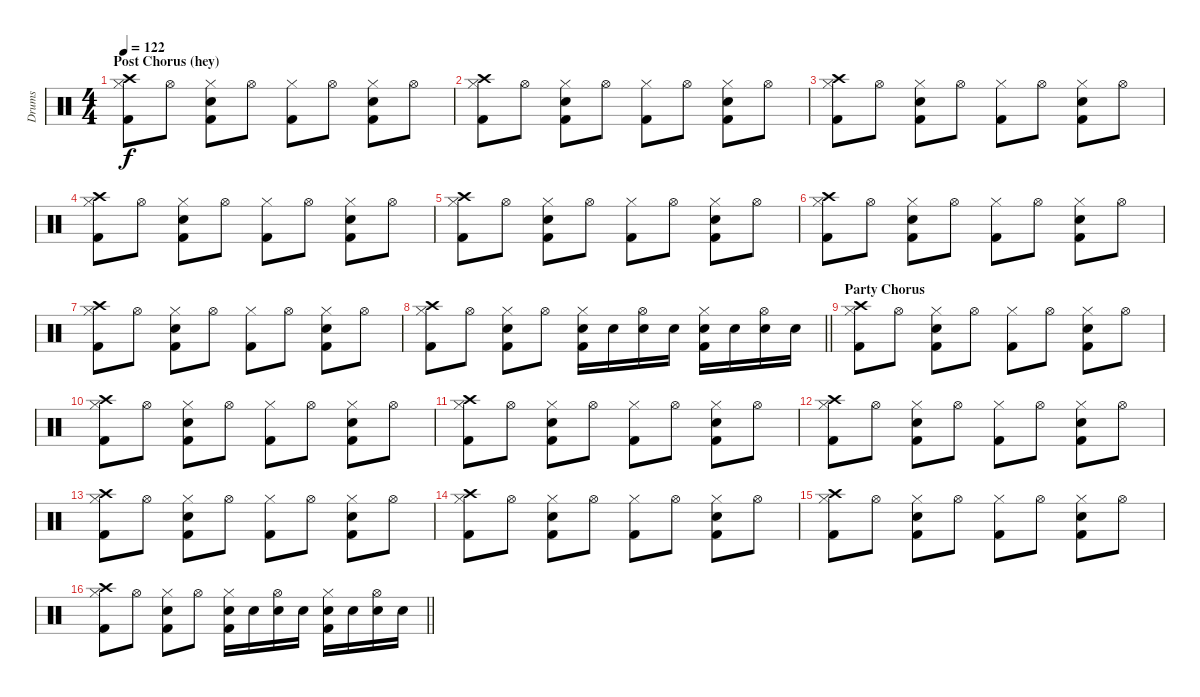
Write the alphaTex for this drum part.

\track ("Drums" "Drums") {instrument percussion}
\staff {score}
\articulation defaults
\ts (4 4)
\section ("" "Post Chorus (hey)")
\tempo 122
\clef neutral
\ks c
("Crash high (hit)" "Hi-Hat (closed)" "Kick (hit) 2").8{dy f} "Hi-Hat (open)".8 ("Hi-Hat (closed)" "Snare (hit) 2" "Kick (hit) 2").8 "Hi-Hat (open)".8 ("Hi-Hat (closed)" "Kick (hit) 2").8 "Hi-Hat (open)".8 ("Hi-Hat (closed)" "Snare (hit) 2" "Kick (hit) 2").8 "Hi-Hat (open)".8 |
("Crash high (hit)" "Hi-Hat (closed)" "Kick (hit) 2").8 "Hi-Hat (open)".8 ("Hi-Hat (closed)" "Snare (hit) 2" "Kick (hit) 2").8 "Hi-Hat (open)".8 ("Hi-Hat (closed)" "Kick (hit) 2").8 "Hi-Hat (open)".8 ("Hi-Hat (closed)" "Snare (hit) 2" "Kick (hit) 2").8 "Hi-Hat (open)".8 |
("Crash high (hit)" "Hi-Hat (closed)" "Kick (hit) 2").8 "Hi-Hat (open)".8 ("Hi-Hat (closed)" "Snare (hit) 2" "Kick (hit) 2").8 "Hi-Hat (open)".8 ("Hi-Hat (closed)" "Kick (hit) 2").8 "Hi-Hat (open)".8 ("Hi-Hat (closed)" "Snare (hit) 2" "Kick (hit) 2").8 "Hi-Hat (open)".8 |
("Crash high (hit)" "Hi-Hat (closed)" "Kick (hit) 2").8 "Hi-Hat (open)".8 ("Hi-Hat (closed)" "Snare (hit) 2" "Kick (hit) 2").8 "Hi-Hat (open)".8 ("Hi-Hat (closed)" "Kick (hit) 2").8 "Hi-Hat (open)".8 ("Hi-Hat (closed)" "Snare (hit) 2" "Kick (hit) 2").8 "Hi-Hat (open)".8 |
("Crash high (hit)" "Hi-Hat (closed)" "Kick (hit) 2").8 "Hi-Hat (open)".8 ("Hi-Hat (closed)" "Snare (hit) 2" "Kick (hit) 2").8 "Hi-Hat (open)".8 ("Hi-Hat (closed)" "Kick (hit) 2").8 "Hi-Hat (open)".8 ("Hi-Hat (closed)" "Snare (hit) 2" "Kick (hit) 2").8 "Hi-Hat (open)".8 |
("Crash high (hit)" "Hi-Hat (closed)" "Kick (hit) 2").8 "Hi-Hat (open)".8 ("Hi-Hat (closed)" "Snare (hit) 2" "Kick (hit) 2").8 "Hi-Hat (open)".8 ("Hi-Hat (closed)" "Kick (hit) 2").8 "Hi-Hat (open)".8 ("Hi-Hat (closed)" "Snare (hit) 2" "Kick (hit) 2").8 "Hi-Hat (open)".8 |
("Crash high (hit)" "Hi-Hat (closed)" "Kick (hit) 2").8 "Hi-Hat (open)".8 ("Hi-Hat (closed)" "Snare (hit) 2" "Kick (hit) 2").8 "Hi-Hat (open)".8 ("Hi-Hat (closed)" "Kick (hit) 2").8 "Hi-Hat (open)".8 ("Hi-Hat (closed)" "Snare (hit) 2" "Kick (hit) 2").8 "Hi-Hat (open)".8 |
\barLineRight lightlight
("Crash high (hit)" "Hi-Hat (closed)" "Kick (hit) 2").8 "Hi-Hat (open)".8 ("Hi-Hat (closed)" "Snare (hit) 2" "Kick (hit) 2").8 "Hi-Hat (open)".8 ("Hi-Hat (closed)" "Snare (hit) 2" "Kick (hit) 2").16 "Snare (hit) 2".16 ("Hi-Hat (open)" "Snare (hit) 2").16 "Snare (hit) 2".16 ("Hi-Hat (closed)" "Snare (hit) 2" "Kick (hit) 2").16 "Snare (hit) 2".16 ("Hi-Hat (open)" "Snare (hit) 2").16 "Snare (hit) 2".16 |
\section ("" "Party Chorus")
("Crash high (hit)" "Hi-Hat (closed)" "Kick (hit) 2").8 "Hi-Hat (open)".8 ("Hi-Hat (closed)" "Snare (hit) 2" "Kick (hit) 2").8 "Hi-Hat (open)".8 ("Hi-Hat (closed)" "Kick (hit) 2").8 "Hi-Hat (open)".8 ("Hi-Hat (closed)" "Snare (hit) 2" "Kick (hit) 2").8 "Hi-Hat (open)".8 |
("Crash high (hit)" "Hi-Hat (closed)" "Kick (hit) 2").8 "Hi-Hat (open)".8 ("Hi-Hat (closed)" "Snare (hit) 2" "Kick (hit) 2").8 "Hi-Hat (open)".8 ("Hi-Hat (closed)" "Kick (hit) 2").8 "Hi-Hat (open)".8 ("Hi-Hat (closed)" "Snare (hit) 2" "Kick (hit) 2").8 "Hi-Hat (open)".8 |
("Crash high (hit)" "Hi-Hat (closed)" "Kick (hit) 2").8 "Hi-Hat (open)".8 ("Hi-Hat (closed)" "Snare (hit) 2" "Kick (hit) 2").8 "Hi-Hat (open)".8 ("Hi-Hat (closed)" "Kick (hit) 2").8 "Hi-Hat (open)".8 ("Hi-Hat (closed)" "Snare (hit) 2" "Kick (hit) 2").8 "Hi-Hat (open)".8 |
("Crash high (hit)" "Hi-Hat (closed)" "Kick (hit) 2").8 "Hi-Hat (open)".8 ("Hi-Hat (closed)" "Snare (hit) 2" "Kick (hit) 2").8 "Hi-Hat (open)".8 ("Hi-Hat (closed)" "Kick (hit) 2").8 "Hi-Hat (open)".8 ("Hi-Hat (closed)" "Snare (hit) 2" "Kick (hit) 2").8 "Hi-Hat (open)".8 |
("Crash high (hit)" "Hi-Hat (closed)" "Kick (hit) 2").8 "Hi-Hat (open)".8 ("Hi-Hat (closed)" "Snare (hit) 2" "Kick (hit) 2").8 "Hi-Hat (open)".8 ("Hi-Hat (closed)" "Kick (hit) 2").8 "Hi-Hat (open)".8 ("Hi-Hat (closed)" "Snare (hit) 2" "Kick (hit) 2").8 "Hi-Hat (open)".8 |
("Crash high (hit)" "Hi-Hat (closed)" "Kick (hit) 2").8 "Hi-Hat (open)".8 ("Hi-Hat (closed)" "Snare (hit) 2" "Kick (hit) 2").8 "Hi-Hat (open)".8 ("Hi-Hat (closed)" "Kick (hit) 2").8 "Hi-Hat (open)".8 ("Hi-Hat (closed)" "Snare (hit) 2" "Kick (hit) 2").8 "Hi-Hat (open)".8 |
("Crash high (hit)" "Hi-Hat (closed)" "Kick (hit) 2").8 "Hi-Hat (open)".8 ("Hi-Hat (closed)" "Snare (hit) 2" "Kick (hit) 2").8 "Hi-Hat (open)".8 ("Hi-Hat (closed)" "Kick (hit) 2").8 "Hi-Hat (open)".8 ("Hi-Hat (closed)" "Snare (hit) 2" "Kick (hit) 2").8 "Hi-Hat (open)".8 |
\barLineRight lightlight
("Crash high (hit)" "Hi-Hat (closed)" "Kick (hit) 2").8 "Hi-Hat (open)".8 ("Hi-Hat (closed)" "Snare (hit) 2" "Kick (hit) 2").8 "Hi-Hat (open)".8 ("Hi-Hat (closed)" "Snare (hit) 2" "Kick (hit) 2").16 "Snare (hit) 2".16 ("Hi-Hat (open)" "Snare (hit) 2").16 "Snare (hit) 2".16 ("Hi-Hat (closed)" "Snare (hit) 2" "Kick (hit) 2").16 "Snare (hit) 2".16 ("Hi-Hat (open)" "Snare (hit) 2").16 "Snare (hit) 2".16
